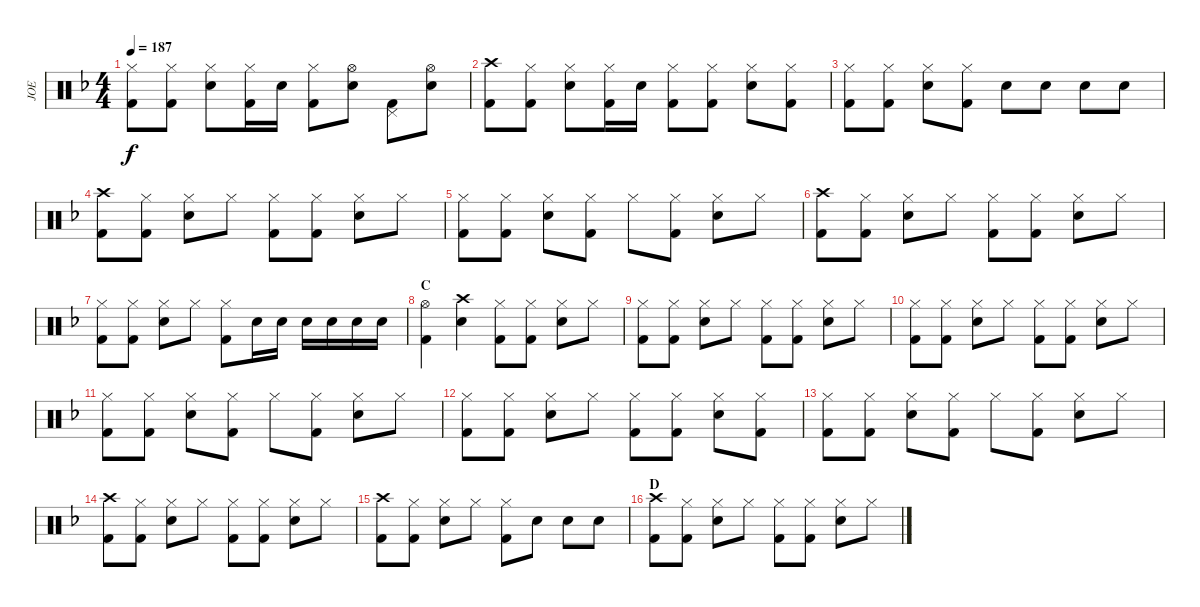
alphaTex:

\track ("JOE" "JOE") {instrument percussion}
\staff {score}
\articulation defaults
\ts (4 4)
\tempo 187
\clef neutral
\ks dminor
("Hi-Hat (closed)" "Kick (hit) 2").8{dy f} ("Hi-Hat (closed)" "Kick (hit) 2").8 ("Hi-Hat (closed)" "Snare (hit) 2").8 ("Hi-Hat (closed)" "Kick (hit) 2").16 "Snare (hit) 2".16 ("Hi-Hat (closed)" "Kick (hit) 2").8 ("Hi-Hat (open)" "Snare (hit) 2").8 ("Pedal Hi-Hat (hit)" "Kick (hit) 2").8 ("Hi-Hat (open)" "Snare (hit) 2").8 |
("Crash high (hit)" "Kick (hit) 2").8 ("Hi-Hat (closed)" "Kick (hit) 2").8 ("Hi-Hat (closed)" "Snare (hit) 2").8 ("Hi-Hat (closed)" "Kick (hit) 2").16 "Snare (hit) 2".16 ("Hi-Hat (closed)" "Kick (hit) 2").8 ("Hi-Hat (closed)" "Kick (hit) 2").8 ("Hi-Hat (closed)" "Snare (hit) 2").8 ("Hi-Hat (closed)" "Kick (hit) 2").8 |
("Hi-Hat (closed)" "Kick (hit) 2").8 ("Hi-Hat (closed)" "Kick (hit) 2").8 ("Hi-Hat (closed)" "Snare (hit) 2").8 ("Hi-Hat (closed)" "Kick (hit) 2").8 "Snare (hit) 2".8 "Snare (hit) 2".8 "Snare (hit) 2".8 "Snare (hit) 2".8 |
("Crash high (hit)" "Kick (hit) 2").8 ("Hi-Hat (closed)" "Kick (hit) 2").8 ("Hi-Hat (closed)" "Snare (hit) 2").8 "Hi-Hat (closed)".8 ("Hi-Hat (closed)" "Kick (hit) 2").8 ("Hi-Hat (closed)" "Kick (hit) 2").8 ("Hi-Hat (closed)" "Snare (hit) 2").8 "Hi-Hat (closed)".8 |
("Hi-Hat (closed)" "Kick (hit) 2").8 ("Hi-Hat (closed)" "Kick (hit) 2").8 ("Hi-Hat (closed)" "Snare (hit) 2").8 ("Hi-Hat (closed)" "Kick (hit) 2").8 "Hi-Hat (closed)".8 ("Hi-Hat (closed)" "Kick (hit) 2").8 ("Hi-Hat (closed)" "Snare (hit) 2").8 "Hi-Hat (closed)".8 |
("Crash high (hit)" "Kick (hit) 2").8 ("Hi-Hat (closed)" "Kick (hit) 2").8 ("Hi-Hat (closed)" "Snare (hit) 2").8 "Hi-Hat (closed)".8 ("Hi-Hat (closed)" "Kick (hit) 2").8 ("Hi-Hat (closed)" "Kick (hit) 2").8 ("Hi-Hat (closed)" "Snare (hit) 2").8 "Hi-Hat (closed)".8 |
("Hi-Hat (closed)" "Kick (hit) 2").8 ("Hi-Hat (closed)" "Kick (hit) 2").8 ("Hi-Hat (closed)" "Snare (hit) 2").8 "Hi-Hat (closed)".8 ("Hi-Hat (closed)" "Kick (hit) 2").8 "Snare (hit) 2".16 "Snare (hit) 2".16 "Snare (hit) 2".16 "Snare (hit) 2".16 "Snare (hit) 2".16 "Snare (hit) 2".16 |
\section ("" "C")
("Hi-Hat (open)" "Kick (hit) 2").4 ("Crash high (hit)" "Snare (hit) 2").4 ("Hi-Hat (closed)" "Kick (hit) 2").8 ("Hi-Hat (closed)" "Kick (hit) 2").8 ("Hi-Hat (closed)" "Snare (hit) 2").8 "Hi-Hat (closed)".8 |
("Hi-Hat (closed)" "Kick (hit) 2").8 ("Hi-Hat (closed)" "Kick (hit) 2").8 ("Hi-Hat (closed)" "Snare (hit) 2").8 "Hi-Hat (closed)".8 ("Hi-Hat (closed)" "Kick (hit) 2").8 ("Hi-Hat (closed)" "Kick (hit) 2").8 ("Hi-Hat (closed)" "Snare (hit) 2").8 "Hi-Hat (closed)".8 |
("Hi-Hat (closed)" "Kick (hit) 2").8 ("Hi-Hat (closed)" "Kick (hit) 2").8 ("Hi-Hat (closed)" "Snare (hit) 2").8 "Hi-Hat (closed)".8 ("Hi-Hat (closed)" "Kick (hit) 2").8 ("Hi-Hat (closed)" "Kick (hit) 2").8 ("Hi-Hat (closed)" "Snare (hit) 2").8 "Hi-Hat (closed)".8 |
("Hi-Hat (closed)" "Kick (hit) 2").8 ("Hi-Hat (closed)" "Kick (hit) 2").8 ("Hi-Hat (closed)" "Snare (hit) 2").8 ("Hi-Hat (closed)" "Kick (hit) 2").8 "Hi-Hat (closed)".8 ("Hi-Hat (closed)" "Kick (hit) 2").8 ("Hi-Hat (closed)" "Snare (hit) 2").8 "Hi-Hat (closed)".8 |
("Hi-Hat (closed)" "Kick (hit) 2").8 ("Hi-Hat (closed)" "Kick (hit) 2").8 ("Hi-Hat (closed)" "Snare (hit) 2").8 "Hi-Hat (closed)".8 ("Hi-Hat (closed)" "Kick (hit) 2").8 ("Hi-Hat (closed)" "Kick (hit) 2").8 ("Hi-Hat (closed)" "Snare (hit) 2").8 ("Hi-Hat (closed)" "Kick (hit) 2").8 |
("Hi-Hat (closed)" "Kick (hit) 2").8 ("Hi-Hat (closed)" "Kick (hit) 2").8 ("Hi-Hat (closed)" "Snare (hit) 2").8 ("Hi-Hat (closed)" "Kick (hit) 2").8 "Hi-Hat (closed)".8 ("Hi-Hat (closed)" "Kick (hit) 2").8 ("Hi-Hat (closed)" "Snare (hit) 2").8 "Hi-Hat (closed)".8 |
("Crash high (hit)" "Kick (hit) 2").8 ("Hi-Hat (closed)" "Kick (hit) 2").8 ("Hi-Hat (closed)" "Snare (hit) 2").8 "Hi-Hat (closed)".8 ("Hi-Hat (closed)" "Kick (hit) 2").8 ("Hi-Hat (closed)" "Kick (hit) 2").8 ("Hi-Hat (closed)" "Snare (hit) 2").8 "Hi-Hat (closed)".8 |
("Crash high (hit)" "Kick (hit) 2").8 ("Hi-Hat (closed)" "Kick (hit) 2").8 ("Hi-Hat (closed)" "Snare (hit) 2").8 "Hi-Hat (closed)".8 ("Hi-Hat (closed)" "Kick (hit) 2").8 "Snare (hit) 2".8 "Snare (hit) 2".8 "Snare (hit) 2".8 |
\section ("" "D")
("Crash high (hit)" "Kick (hit) 2").8 ("Hi-Hat (closed)" "Kick (hit) 2").8 ("Hi-Hat (closed)" "Snare (hit) 2").8 "Hi-Hat (closed)".8 ("Hi-Hat (closed)" "Kick (hit) 2").8 ("Hi-Hat (closed)" "Kick (hit) 2").8 ("Hi-Hat (closed)" "Snare (hit) 2").8 "Hi-Hat (closed)".8
